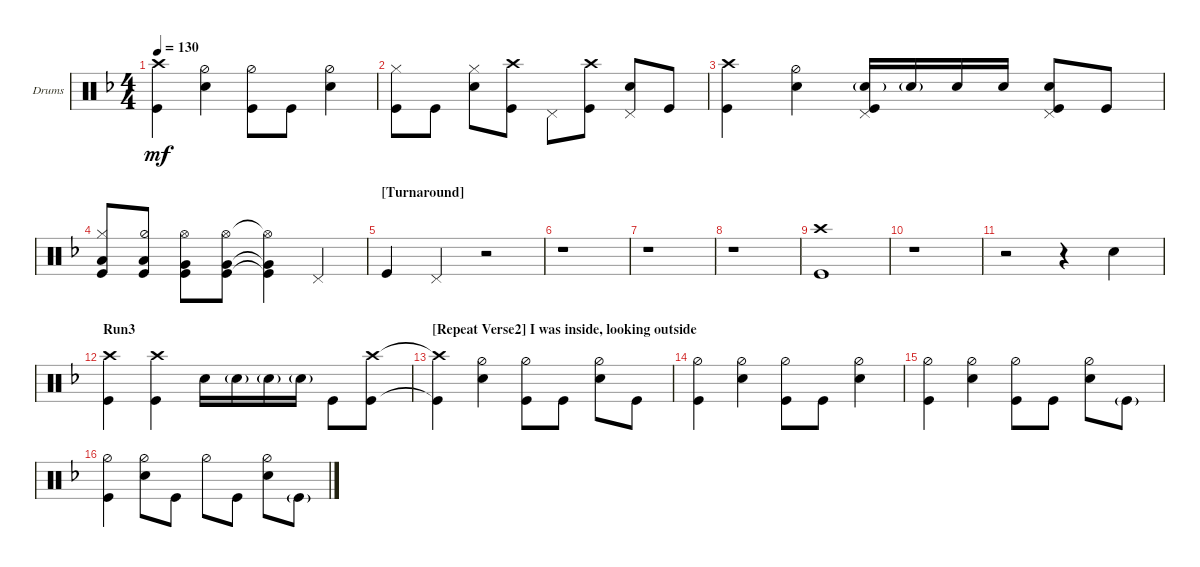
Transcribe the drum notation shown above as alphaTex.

\defaultSystemsLayout 4
\bracketExtendMode groupsimilarinstruments
\firstSystemTrackNameOrientation horizontal
\otherSystemsTrackNameOrientation horizontal
\track ("Drumkit" "Drums") {instrument percussion}
\staff {score}
\articulation defaults
\ts (4 4)
\tempo 130
\clef neutral
\ks dminor
("Kick (hit)" "Crash high (hit)").4{dy mf} ("Hi-Hat (half)" "Snare (hit) 2").4 ("Kick (hit)" "Hi-Hat (half)").8 "Kick (hit)".8 ("Snare (hit) 2" "Hi-Hat (half)").4 |
("Kick (hit)" "Hi-Hat (closed)").8 "Kick (hit)".8 ("Snare (hit) 2" "Hi-Hat (closed)").8 ("Kick (hit)" "Crash high (hit)").8 "Pedal Hi-Hat (hit)".8 ("Kick (hit)" "Crash high (hit)").8 ("Snare (hit) 2" "Pedal Hi-Hat (hit)").8 "Kick (hit)".8 |
("Kick (hit)" "Crash high (hit)").4 ("Hi-Hat (half)" "Snare (hit) 2").4 ("Kick (hit)" "Snare (hit) 2"{g} "Pedal Hi-Hat (hit)").16 "Snare (hit) 2"{g}.16 "Snare (hit) 2".16 "Snare (hit) 2".16 ("Snare (hit) 2" "Kick (hit)" "Pedal Hi-Hat (hit)").8 "Kick (hit)".8 |
("Kick (hit)" "Low Tom (hit)" "Hi-Hat (closed)").8 ("Kick (hit)" "Low Tom (hit)" "Hi-Hat (half)").8 ("Kick (hit)" "Very Low Tom (hit)" "Hi-Hat (open)").8 ("Kick (hit)" "Very Low Tom (hit)" "Hi-Hat (open)").8 ("Kick (hit)"{t} "Very Low Tom (hit)"{t} "Hi-Hat (open)"{t}).4 "Pedal Hi-Hat (hit)".4 |
\section ("" "[Turnaround] ")
"Kick (hit)".4 "Pedal Hi-Hat (hit)".4 r.2 |
r.1 |
r.1 |
r.1 |
("Crash high (hit)" "Kick (hit)").1 |
r.1 |
r.2 r.4 "Snare (hit) 2".4 |
\section ("" "Run3")
("Kick (hit)" "Crash high (hit)").4 ("Kick (hit)" "Crash high (hit)").4 "Snare (hit) 2".16 "Snare (hit) 2"{g}.16 "Snare (hit) 2"{g}.16 "Snare (hit) 2"{g}.16 "Kick (hit)".8 ("Kick (hit)" "Crash high (hit)").8 |
\section ("" "[Repeat Verse2] I was inside, looking outside")
("Kick (hit)"{t} "Crash high (hit)"{t}).4 ("Hi-Hat (half)" "Snare (hit) 2").4 ("Kick (hit)" "Hi-Hat (half)").8 "Kick (hit)".8 ("Snare (hit) 2" "Hi-Hat (half)").8 "Kick (hit)".8 |
("Kick (hit)" "Hi-Hat (half)").4 ("Hi-Hat (half)" "Snare (hit) 2").4 ("Kick (hit)" "Hi-Hat (half)").8 "Kick (hit)".8 ("Snare (hit) 2" "Hi-Hat (half)").4 |
("Kick (hit)" "Hi-Hat (half)").4 ("Hi-Hat (half)" "Snare (hit) 2").4 ("Kick (hit)" "Hi-Hat (half)").8 "Kick (hit)".8 ("Snare (hit) 2" "Hi-Hat (half)").8 "Kick (hit)"{g}.8 |
("Kick (hit)" "Hi-Hat (half)").4 ("Snare (hit) 2" "Hi-Hat (half)").8 "Kick (hit)".8 "Hi-Hat (half)".8 "Kick (hit)".8 ("Snare (hit) 2" "Hi-Hat (half)").8 "Kick (hit)"{g}.8
